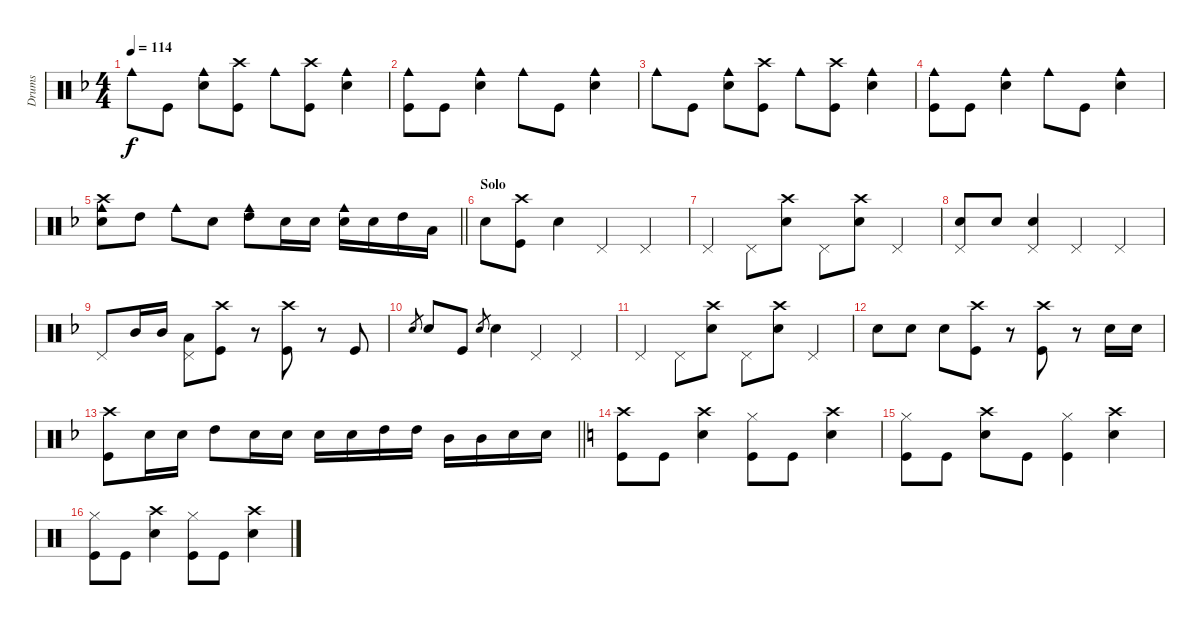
\track ("Drums" "Drums") {instrument percussion}
\staff {score}
\articulation defaults
\ts (4 4)
\tempo 114
\clef neutral
\ks dminor "Cowbell medium (hit)".8{dy f} "Kick (hit)".8
("Cowbell medium (hit)" "Snare (hit) 2").8 ("Crash high (hit)" "Kick (hit)").8 "Cowbell medium (hit)".8 ("Crash high (hit)" "Kick (hit)").8 ("Cowbell medium (hit)" "Snare (hit) 2").4 |
("Cowbell medium (hit)" "Kick (hit)").8 "Kick (hit)".8 ("Cowbell medium (hit)" "Snare (hit) 2").4 "Cowbell medium (hit)".8 "Kick (hit)".8 ("Cowbell medium (hit)" "Snare (hit) 2").4 |
"Cowbell medium (hit)".8 "Kick (hit)".8 ("Cowbell medium (hit)" "Snare (hit) 2").8 ("Crash high (hit)" "Kick (hit)").8 "Cowbell medium (hit)".8 ("Crash high (hit)" "Kick (hit)").8 ("Cowbell medium (hit)" "Snare (hit) 2").4 |
("Cowbell medium (hit)" "Kick (hit)").8 "Kick (hit)".8 ("Cowbell medium (hit)" "Snare (hit) 2").4 "Cowbell medium (hit)".8 "Kick (hit)".8 ("Cowbell medium (hit)" "Snare (hit) 2").4 |
\barLineRight lightlight
("Cowbell medium (hit)" "Crash high (hit)" "Snare (hit) 2").8 "High Tom (hit)".8 "Cowbell medium (hit)".8 "Snare (hit) 2".8 ("Cowbell medium (hit)" "High Tom (hit)").8 "Snare (hit) 2".16 "Snare (hit) 2".16 ("Cowbell medium (hit)" "Snare (hit) 2").16 "Snare (hit) 2".16 "High Tom (hit)".16 "Low Tom (hit)".16 |
\section ("" "Solo")
"Snare (hit) 2".8 ("Crash high (hit)" "Kick (hit)").8 "Snare (hit) 2".4 "Pedal Hi-Hat (hit)".4 "Pedal Hi-Hat (hit)".4 |
"Pedal Hi-Hat (hit)".4 "Pedal Hi-Hat (hit)".8 ("Crash high (hit)" "Snare (hit) 2").8 "Pedal Hi-Hat (hit)".8 ("Crash high (hit)" "Snare (hit) 2").8 "Pedal Hi-Hat (hit)".4 |
("Snare (hit) 2" "Pedal Hi-Hat (hit)").8 "Snare (hit) 2".8 ("Snare (hit) 2" "Pedal Hi-Hat (hit)").4 "Pedal Hi-Hat (hit)".4 "Pedal Hi-Hat (hit)".4 |
"Pedal Hi-Hat (hit)".8 "Mid Tom (hit)".16 "Mid Tom (hit)".16 ("Low Tom (hit)" "Pedal Hi-Hat (hit)").8 ("Crash high (hit)" "Kick (hit)").8 r.8 ("Crash high (hit)" "Kick (hit)").8 r.8 "Kick (hit)".8 |
"Snare (hit) 2".8{gr} "Snare (hit) 2".8 "Kick (hit)".8 "Snare (hit) 2".8{gr} "Snare (hit) 2".4 "Pedal Hi-Hat (hit)".4 "Pedal Hi-Hat (hit)".4 |
"Pedal Hi-Hat (hit)".4 "Pedal Hi-Hat (hit)".8 ("Crash high (hit)" "Snare (hit) 2").8 "Pedal Hi-Hat (hit)".8 ("Crash high (hit)" "Snare (hit) 2").8 "Pedal Hi-Hat (hit)".4 |
"Snare (hit) 2".8 "Snare (hit) 2".8 "Snare (hit) 2".8 ("Crash high (hit)" "Kick (hit)").8 r.8 ("Crash high (hit)" "Kick (hit)").8 r.8 "Snare (hit) 2".16 "Snare (hit) 2".16 |
\barLineRight lightlight
("Crash high (hit)" "Kick (hit)").8 "Snare (hit) 2".16 "Snare (hit) 2".16 "High Tom (hit)".8 "Snare (hit) 2".16 "Snare (hit) 2".16 "Snare (hit) 2".16 "Snare (hit) 2".16 "High Tom (hit)".16 "High Tom (hit)".16 "Mid Tom (hit)".16 "Mid Tom (hit)".16 "Snare (hit) 2".16 "Snare (hit) 2".16 |
\ks aminor
("Crash high (hit)" "Kick (hit)").8 "Kick (hit)".8 ("Crash high (hit)" "Snare (hit) 2").4 ("Hi-Hat (closed)" "Kick (hit)").8 "Kick (hit)".8 ("Crash high (hit)" "Snare (hit) 2").4 |
("Hi-Hat (closed)" "Kick (hit)").8 "Kick (hit)".8 ("Crash high (hit)" "Snare (hit) 2").8 "Kick (hit)".8 ("Hi-Hat (closed)" "Kick (hit)").4 ("Crash high (hit)" "Snare (hit) 2").4 |
("Hi-Hat (closed)" "Kick (hit)").8 "Kick (hit)".8 ("Crash high (hit)" "Snare (hit) 2").4 ("Hi-Hat (closed)" "Kick (hit)").8 "Kick (hit)".8 ("Crash high (hit)" "Snare (hit) 2").4
